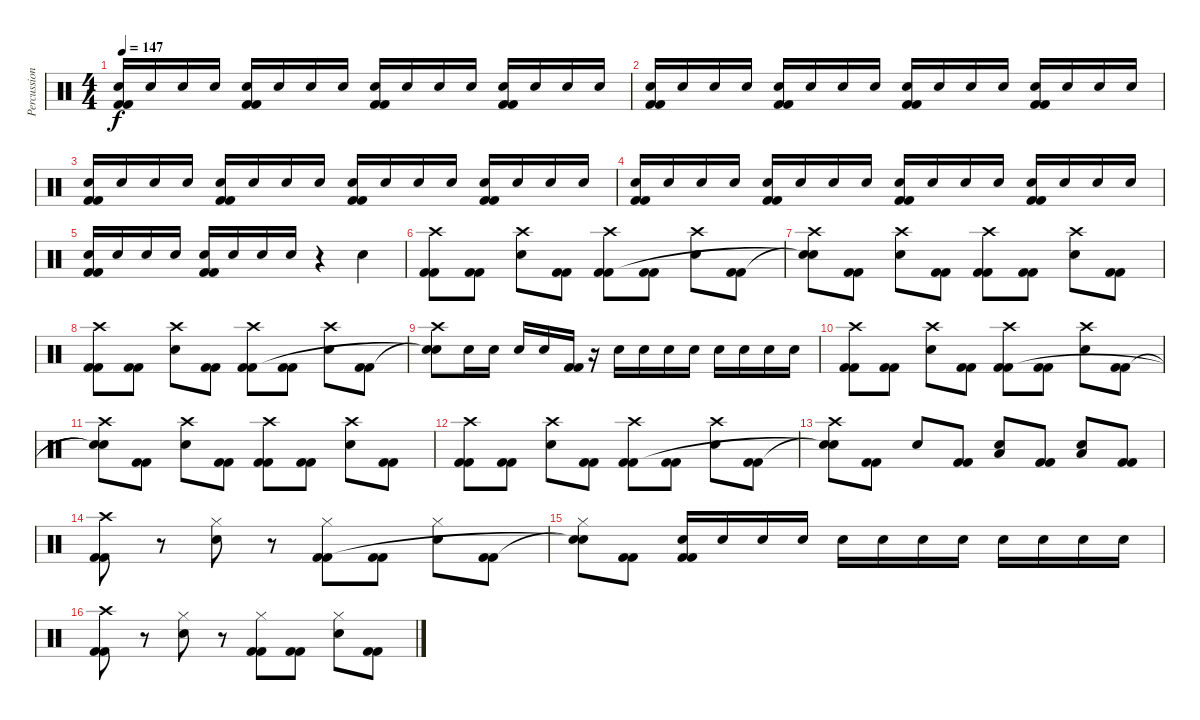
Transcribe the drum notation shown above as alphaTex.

\track ("Percussions" "Percussion") {instrument percussion}
\staff {score}
\articulation defaults
\ts (4 4)
\tempo 147
\clef neutral
\ks c
("Snare (hit) 2" "Kick (hit) 2" "Kick (hit) 2").16{dy f} "Snare (hit) 2".16 "Snare (hit) 2".16 "Snare (hit) 2".16 ("Snare (hit) 2" "Kick (hit) 2" "Kick (hit) 2").16 "Snare (hit) 2".16 "Snare (hit) 2".16 "Snare (hit) 2".16 ("Snare (hit) 2" "Kick (hit) 2" "Kick (hit) 2").16 "Snare (hit) 2".16 "Snare (hit) 2".16 "Snare (hit) 2".16 ("Snare (hit) 2" "Kick (hit) 2" "Kick (hit) 2").16 "Snare (hit) 2".16 "Snare (hit) 2".16 "Snare (hit) 2".16 |
("Snare (hit) 2" "Kick (hit) 2" "Kick (hit) 2").16 "Snare (hit) 2".16 "Snare (hit) 2".16 "Snare (hit) 2".16 ("Snare (hit) 2" "Kick (hit) 2" "Kick (hit) 2").16 "Snare (hit) 2".16 "Snare (hit) 2".16 "Snare (hit) 2".16 ("Snare (hit) 2" "Kick (hit) 2" "Kick (hit) 2").16 "Snare (hit) 2".16 "Snare (hit) 2".16 "Snare (hit) 2".16 ("Snare (hit) 2" "Kick (hit) 2" "Kick (hit) 2").16 "Snare (hit) 2".16 "Snare (hit) 2".16 "Snare (hit) 2".16 |
("Snare (hit) 2" "Kick (hit) 2" "Kick (hit) 2").16 "Snare (hit) 2".16 "Snare (hit) 2".16 "Snare (hit) 2".16 ("Snare (hit) 2" "Kick (hit) 2" "Kick (hit) 2").16 "Snare (hit) 2".16 "Snare (hit) 2".16 "Snare (hit) 2".16 ("Snare (hit) 2" "Kick (hit) 2" "Kick (hit) 2").16 "Snare (hit) 2".16 "Snare (hit) 2".16 "Snare (hit) 2".16 ("Snare (hit) 2" "Kick (hit) 2" "Kick (hit) 2").16 "Snare (hit) 2".16 "Snare (hit) 2".16 "Snare (hit) 2".16 |
("Snare (hit) 2" "Kick (hit) 2" "Kick (hit) 2").16 "Snare (hit) 2".16 "Snare (hit) 2".16 "Snare (hit) 2".16 ("Snare (hit) 2" "Kick (hit) 2" "Kick (hit) 2").16 "Snare (hit) 2".16 "Snare (hit) 2".16 "Snare (hit) 2".16 ("Snare (hit) 2" "Kick (hit) 2" "Kick (hit) 2").16 "Snare (hit) 2".16 "Snare (hit) 2".16 "Snare (hit) 2".16 ("Snare (hit) 2" "Kick (hit) 2" "Kick (hit) 2").16 "Snare (hit) 2".16 "Snare (hit) 2".16 "Snare (hit) 2".16 |
("Snare (hit) 2" "Kick (hit) 2" "Kick (hit) 2").16 "Snare (hit) 2".16 "Snare (hit) 2".16 "Snare (hit) 2".16 ("Snare (hit) 2" "Kick (hit) 2" "Kick (hit) 2").16 "Snare (hit) 2".16 "Snare (hit) 2".16 "Snare (hit) 2".16 r.4 "Snare (hit) 2".4 |
("Crash high (hit)" "Kick (hit) 2" "Kick (hit) 2").8 ("Kick (hit) 2" "Kick (hit) 2").8 ("Crash high (hit)" "Snare (hit) 2").8 ("Kick (hit) 2" "Kick (hit) 2").8 ("Crash high (hit)" "Kick (hit) 2" "Kick (hit) 2").8 ("Kick (hit) 2" "Kick (hit) 2").8 ("Crash high (hit)" "Snare (hit) 2").8 ("Kick (hit) 2" "Kick (hit) 2").8 |
("Crash high (hit)" "Snare (hit)"{t} "Snare (hit)"{t}).8 ("Kick (hit) 2" "Kick (hit) 2").8 ("Crash high (hit)" "Snare (hit) 2").8 ("Kick (hit) 2" "Kick (hit) 2").8 ("Crash high (hit)" "Kick (hit) 2" "Kick (hit) 2").8 ("Kick (hit) 2" "Kick (hit) 2").8 ("Crash high (hit)" "Snare (hit) 2").8 ("Kick (hit) 2" "Kick (hit) 2").8 |
("Crash high (hit)" "Kick (hit) 2" "Kick (hit) 2").8 ("Kick (hit) 2" "Kick (hit) 2").8 ("Crash high (hit)" "Snare (hit) 2").8 ("Kick (hit) 2" "Kick (hit) 2").8 ("Crash high (hit)" "Kick (hit) 2" "Kick (hit) 2").8 ("Kick (hit) 2" "Kick (hit) 2").8 ("Crash high (hit)" "Snare (hit) 2").8 ("Kick (hit) 2" "Kick (hit) 2").8 |
("Crash high (hit)" "Snare (hit)"{t} "Snare (hit)"{t}).8 "Snare (hit) 2".16 "Snare (hit) 2".16 "Snare (hit) 2".16 "Snare (hit) 2".16 ("Kick (hit) 2" "Kick (hit) 2").16 r.16 "Snare (hit) 2".16 "Snare (hit) 2".16 "Snare (hit) 2".16 "Snare (hit) 2".16 "Snare (hit) 2".16 "Snare (hit) 2".16 "Snare (hit) 2".16 "Snare (hit) 2".16 |
("Crash high (hit)" "Kick (hit) 2" "Kick (hit) 2").8 ("Kick (hit) 2" "Kick (hit) 2").8 ("Crash high (hit)" "Snare (hit) 2").8 ("Kick (hit) 2" "Kick (hit) 2").8 ("Crash high (hit)" "Kick (hit) 2" "Kick (hit) 2").8 ("Kick (hit) 2" "Kick (hit) 2").8 ("Crash high (hit)" "Snare (hit) 2").8 ("Kick (hit) 2" "Kick (hit) 2").8 |
("Crash high (hit)" "Snare (hit)"{t} "Snare (hit)"{t}).8 ("Kick (hit) 2" "Kick (hit) 2").8 ("Crash high (hit)" "Snare (hit) 2").8 ("Kick (hit) 2" "Kick (hit) 2").8 ("Crash high (hit)" "Kick (hit) 2" "Kick (hit) 2").8 ("Kick (hit) 2" "Kick (hit) 2").8 ("Crash high (hit)" "Snare (hit) 2").8 ("Kick (hit) 2" "Kick (hit) 2").8 |
("Crash high (hit)" "Kick (hit) 2" "Kick (hit) 2").8 ("Kick (hit) 2" "Kick (hit) 2").8 ("Crash high (hit)" "Snare (hit) 2").8 ("Kick (hit) 2" "Kick (hit) 2").8 ("Crash high (hit)" "Kick (hit) 2" "Kick (hit) 2").8 ("Kick (hit) 2" "Kick (hit) 2").8 ("Crash high (hit)" "Snare (hit) 2").8 ("Kick (hit) 2" "Kick (hit) 2").8 |
("Crash high (hit)" "Snare (hit)"{t} "Snare (hit)"{t}).8 ("Kick (hit) 2" "Kick (hit) 2").8 "Snare (hit) 2".8 ("Kick (hit) 2" "Kick (hit) 2").8 ("Low Tom (hit)" "Snare (hit) 2").8 ("Kick (hit) 2" "Kick (hit) 2").8 ("Low Tom (hit)" "Snare (hit) 2").8 ("Kick (hit) 2" "Kick (hit) 2").8 |
("Crash high (hit)" "Kick (hit) 2" "Kick (hit) 2").8 r.8 ("Hi-Hat (closed)" "Snare (hit) 2").8 r.8 ("Hi-Hat (closed)" "Kick (hit) 2" "Kick (hit) 2").8 ("Kick (hit) 2" "Kick (hit) 2").8 ("Hi-Hat (closed)" "Snare (hit) 2").8 ("Kick (hit) 2" "Kick (hit) 2").8 |
("Hi-Hat (closed)" "Snare (hit)"{t} "Snare (hit)"{t}).8 ("Kick (hit) 2" "Kick (hit) 2").8 ("Snare (hit) 2" "Kick (hit) 2" "Kick (hit) 2").16 "Snare (hit) 2".16 "Snare (hit) 2".16 "Snare (hit) 2".16 "Snare (hit) 2".16 "Snare (hit) 2".16 "Snare (hit) 2".16 "Snare (hit) 2".16 "Snare (hit) 2".16 "Snare (hit) 2".16 "Snare (hit) 2".16 "Snare (hit) 2".16 |
("Crash high (hit)" "Kick (hit) 2" "Kick (hit) 2").8 r.8 ("Hi-Hat (closed)" "Snare (hit) 2").8 r.8 ("Hi-Hat (closed)" "Kick (hit) 2" "Kick (hit) 2").8 ("Kick (hit) 2" "Kick (hit) 2").8 ("Hi-Hat (closed)" "Snare (hit) 2").8 ("Kick (hit) 2" "Kick (hit) 2").8
